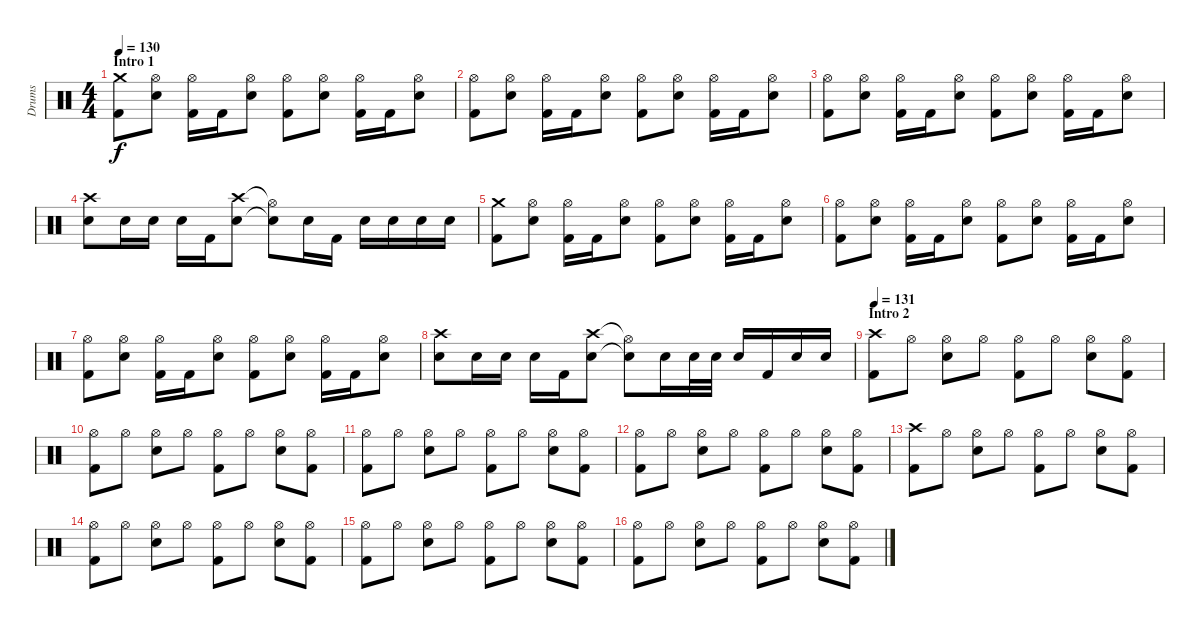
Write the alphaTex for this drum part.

\track ("Drums" "Drums") {instrument percussion}
\staff {score}
\articulation defaults
\ts (4 4)
\section ("" "Intro 1")
\tempo 130
\clef neutral
\ks c
("Crash medium (hit)" "Kick (hit) 2").8{dy f} ("Hi-Hat (open)" "Electric Snare (hit)").8 ("Hi-Hat (open)" "Kick (hit) 2").16 "Kick (hit) 2".16 ("Hi-Hat (open)" "Electric Snare (hit)").8 ("Hi-Hat (open)" "Kick (hit) 2").8 ("Hi-Hat (open)" "Electric Snare (hit)").8 ("Hi-Hat (open)" "Kick (hit) 2").16 "Kick (hit) 2".16 ("Hi-Hat (open)" "Electric Snare (hit)").8 |
("Hi-Hat (open)" "Kick (hit) 2").8 ("Hi-Hat (open)" "Electric Snare (hit)").8 ("Hi-Hat (open)" "Kick (hit) 2").16 "Kick (hit) 2".16 ("Hi-Hat (open)" "Electric Snare (hit)").8 ("Hi-Hat (open)" "Kick (hit) 2").8 ("Hi-Hat (open)" "Electric Snare (hit)").8 ("Hi-Hat (open)" "Kick (hit) 2").16 "Kick (hit) 2".16 ("Hi-Hat (open)" "Electric Snare (hit)").8 |
("Hi-Hat (open)" "Kick (hit) 2").8 ("Hi-Hat (open)" "Electric Snare (hit)").8 ("Hi-Hat (open)" "Kick (hit) 2").16 "Kick (hit) 2".16 ("Hi-Hat (open)" "Electric Snare (hit)").8 ("Hi-Hat (open)" "Kick (hit) 2").8 ("Hi-Hat (open)" "Electric Snare (hit)").8 ("Hi-Hat (open)" "Kick (hit) 2").16 "Kick (hit) 2".16 ("Hi-Hat (open)" "Electric Snare (hit)").8 |
("Crash high (hit)" "Electric Snare (hit)").8 "Electric Snare (hit)".16 "Electric Snare (hit)".16 "Electric Snare (hit)".16 "Kick (hit) 2".16 ("Crash high (hit)" "Electric Snare (hit)").8 ("Hi-Hat (open)"{t} "Snare (hit)"{t}).8 "Electric Snare (hit)".16 "Kick (hit) 2".16 "Electric Snare (hit)".16 "Electric Snare (hit)".16 "Electric Snare (hit)".16 "Electric Snare (hit)".16 |
("Crash medium (hit)" "Kick (hit) 2").8 ("Hi-Hat (open)" "Electric Snare (hit)").8 ("Hi-Hat (open)" "Kick (hit) 2").16 "Kick (hit) 2".16 ("Hi-Hat (open)" "Electric Snare (hit)").8 ("Hi-Hat (open)" "Kick (hit) 2").8 ("Hi-Hat (open)" "Electric Snare (hit)").8 ("Hi-Hat (open)" "Kick (hit) 2").16 "Kick (hit) 2".16 ("Hi-Hat (open)" "Electric Snare (hit)").8 |
("Hi-Hat (open)" "Kick (hit) 2").8 ("Hi-Hat (open)" "Electric Snare (hit)").8 ("Hi-Hat (open)" "Kick (hit) 2").16 "Kick (hit) 2".16 ("Hi-Hat (open)" "Electric Snare (hit)").8 ("Hi-Hat (open)" "Kick (hit) 2").8 ("Hi-Hat (open)" "Electric Snare (hit)").8 ("Hi-Hat (open)" "Kick (hit) 2").16 "Kick (hit) 2".16 ("Hi-Hat (open)" "Electric Snare (hit)").8 |
("Hi-Hat (open)" "Kick (hit) 2").8 ("Hi-Hat (open)" "Electric Snare (hit)").8 ("Hi-Hat (open)" "Kick (hit) 2").16 "Kick (hit) 2".16 ("Hi-Hat (open)" "Electric Snare (hit)").8 ("Hi-Hat (open)" "Kick (hit) 2").8 ("Hi-Hat (open)" "Electric Snare (hit)").8 ("Hi-Hat (open)" "Kick (hit) 2").16 "Kick (hit) 2".16 ("Hi-Hat (open)" "Electric Snare (hit)").8 |
("Crash high (hit)" "Electric Snare (hit)").8 "Electric Snare (hit)".16 "Electric Snare (hit)".16 "Electric Snare (hit)".16 "Kick (hit) 2".16 ("Crash high (hit)" "Electric Snare (hit)").8 ("Hi-Hat (open)"{t} "Snare (hit)"{t}).8 "Electric Snare (hit)".16 "Electric Snare (hit)".32 "Electric Snare (hit)".32 "Electric Snare (hit)".16 "Kick (hit) 2".16 "Electric Snare (hit)".16 "Electric Snare (hit)".16 |
\section ("" "Intro 2")
\tempo 131
("Crash high (hit)" "Kick (hit) 2").8 "Hi-Hat (open)".8 ("Hi-Hat (open)" "Electric Snare (hit)").8 "Hi-Hat (open)".8 ("Hi-Hat (open)" "Kick (hit) 2").8 "Hi-Hat (open)".8 ("Hi-Hat (open)" "Electric Snare (hit)").8 ("Hi-Hat (open)" "Kick (hit) 2").8 |
("Hi-Hat (open)" "Kick (hit) 2").8 "Hi-Hat (open)".8 ("Hi-Hat (open)" "Electric Snare (hit)").8 "Hi-Hat (open)".8 ("Hi-Hat (open)" "Kick (hit) 2").8 "Hi-Hat (open)".8 ("Hi-Hat (open)" "Electric Snare (hit)").8 ("Hi-Hat (open)" "Kick (hit) 2").8 |
("Hi-Hat (open)" "Kick (hit) 2").8 "Hi-Hat (open)".8 ("Hi-Hat (open)" "Electric Snare (hit)").8 "Hi-Hat (open)".8 ("Hi-Hat (open)" "Kick (hit) 2").8 "Hi-Hat (open)".8 ("Hi-Hat (open)" "Electric Snare (hit)").8 ("Hi-Hat (open)" "Kick (hit) 2").8 |
("Hi-Hat (open)" "Kick (hit) 2").8 "Hi-Hat (open)".8 ("Hi-Hat (open)" "Electric Snare (hit)").8 "Hi-Hat (open)".8 ("Hi-Hat (open)" "Kick (hit) 2").8 "Hi-Hat (open)".8 ("Hi-Hat (open)" "Electric Snare (hit)").8 ("Hi-Hat (open)" "Kick (hit) 2").8 |
("Crash high (hit)" "Kick (hit) 2").8 "Hi-Hat (open)".8 ("Hi-Hat (open)" "Electric Snare (hit)").8 "Hi-Hat (open)".8 ("Hi-Hat (open)" "Kick (hit) 2").8 "Hi-Hat (open)".8 ("Hi-Hat (open)" "Electric Snare (hit)").8 ("Hi-Hat (open)" "Kick (hit) 2").8 |
("Hi-Hat (open)" "Kick (hit) 2").8 "Hi-Hat (open)".8 ("Hi-Hat (open)" "Electric Snare (hit)").8 "Hi-Hat (open)".8 ("Hi-Hat (open)" "Kick (hit) 2").8 "Hi-Hat (open)".8 ("Hi-Hat (open)" "Electric Snare (hit)").8 ("Hi-Hat (open)" "Kick (hit) 2").8 |
("Hi-Hat (open)" "Kick (hit) 2").8 "Hi-Hat (open)".8 ("Hi-Hat (open)" "Electric Snare (hit)").8 "Hi-Hat (open)".8 ("Hi-Hat (open)" "Kick (hit) 2").8 "Hi-Hat (open)".8 ("Hi-Hat (open)" "Electric Snare (hit)").8 ("Hi-Hat (open)" "Kick (hit) 2").8 |
("Hi-Hat (open)" "Kick (hit) 2").8 "Hi-Hat (open)".8 ("Hi-Hat (open)" "Electric Snare (hit)").8 "Hi-Hat (open)".8 ("Hi-Hat (open)" "Kick (hit) 2").8 "Hi-Hat (open)".8 ("Hi-Hat (open)" "Electric Snare (hit)").8 ("Hi-Hat (open)" "Kick (hit) 2").8
